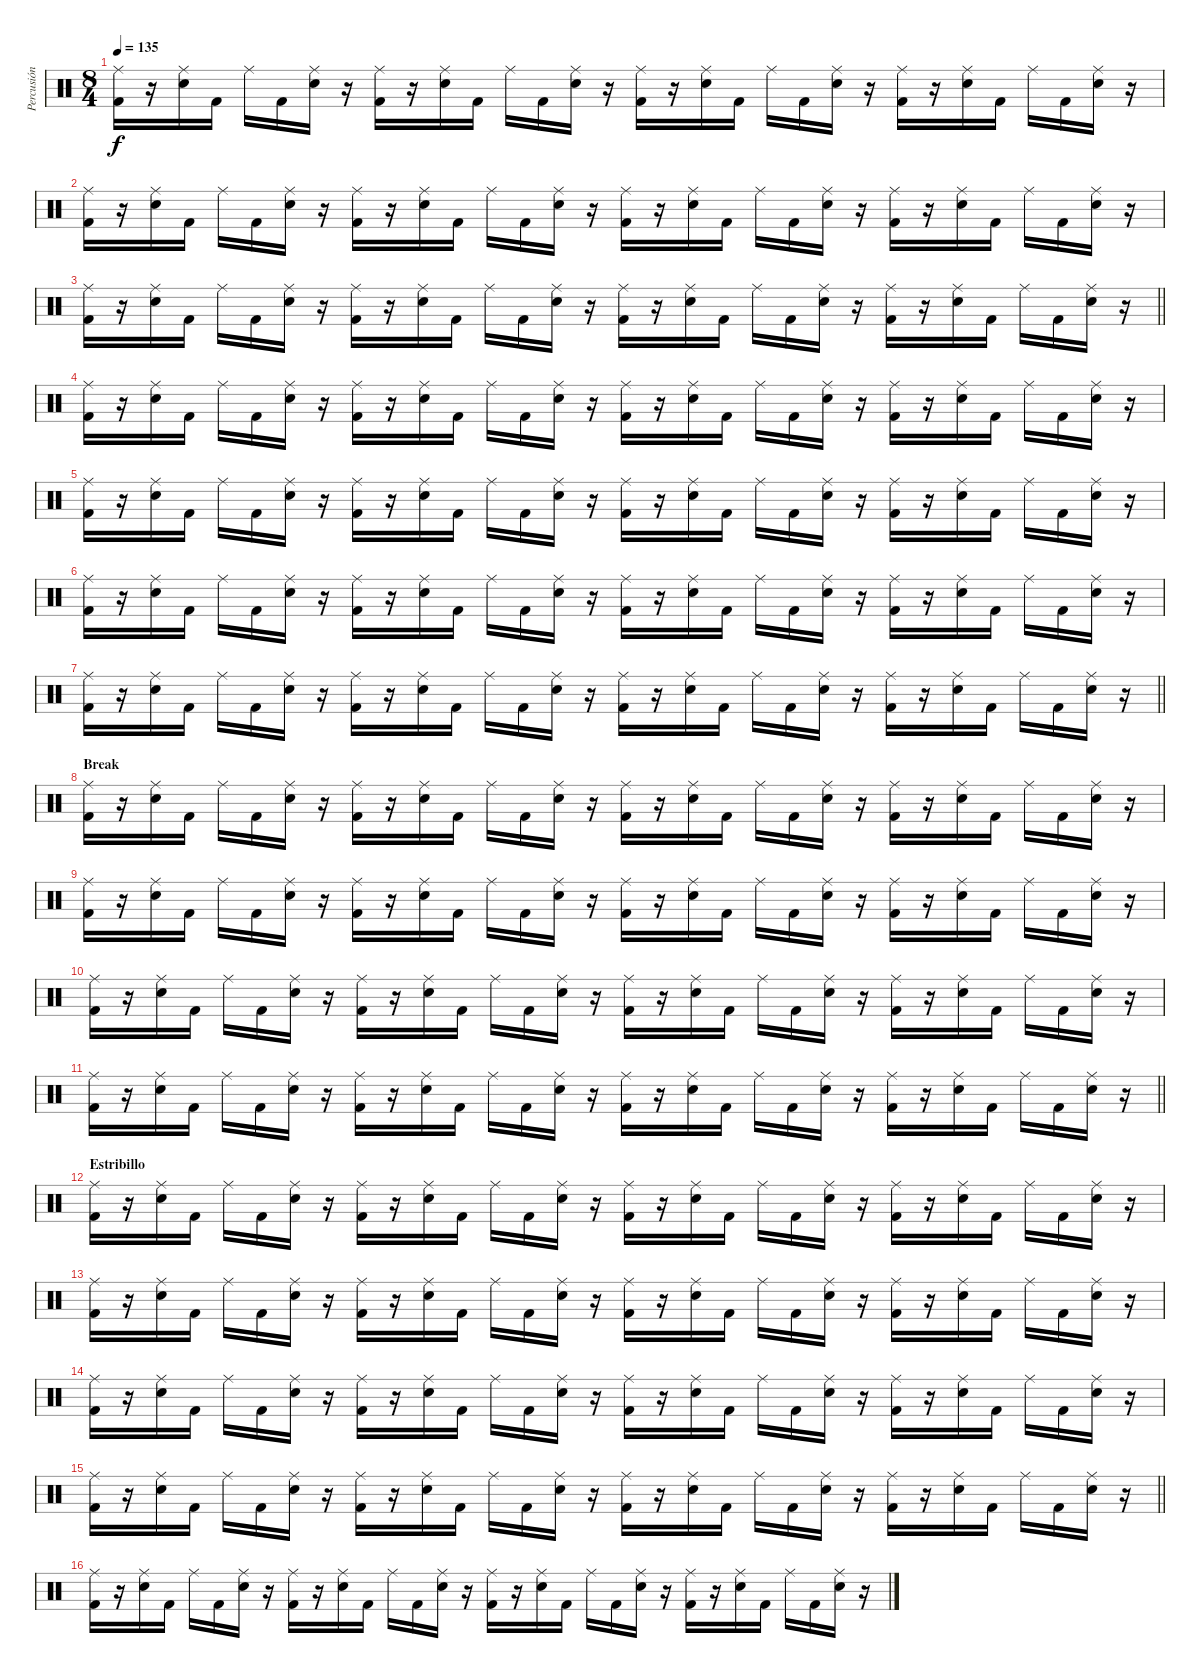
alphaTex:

\track ("Percusión" "Percusión") {instrument percussion}
\staff {score}
\articulation defaults
\ts (8 4)
\tempo 135
\clef neutral
\ks c
("Kick (hit) 2" "Ride (middle)").16{dy f} r.16 ("Snare (hit) 2" "Ride (middle)").16 "Kick (hit) 2".16 "Ride (middle)".16 "Kick (hit) 2".16 ("Snare (hit) 2" "Ride (middle)").16 r.16 ("Kick (hit) 2" "Ride (middle)").16 r.16 ("Snare (hit) 2" "Ride (middle)").16 "Kick (hit) 2".16 "Ride (middle)".16 "Kick (hit) 2".16 ("Snare (hit) 2" "Ride (middle)").16 r.16 ("Kick (hit) 2" "Ride (middle)").16 r.16 ("Snare (hit) 2" "Ride (middle)").16 "Kick (hit) 2".16 "Ride (middle)".16 "Kick (hit) 2".16 ("Snare (hit) 2" "Ride (middle)").16 r.16 ("Kick (hit) 2" "Ride (middle)").16 r.16 ("Snare (hit) 2" "Ride (middle)").16 "Kick (hit) 2".16 "Ride (middle)".16 "Kick (hit) 2".16 ("Snare (hit) 2" "Ride (middle)").16 r.16 |
("Kick (hit) 2" "Ride (middle)").16 r.16 ("Snare (hit) 2" "Ride (middle)").16 "Kick (hit) 2".16 "Ride (middle)".16 "Kick (hit) 2".16 ("Snare (hit) 2" "Ride (middle)").16 r.16 ("Kick (hit) 2" "Ride (middle)").16 r.16 ("Snare (hit) 2" "Ride (middle)").16 "Kick (hit) 2".16 "Ride (middle)".16 "Kick (hit) 2".16 ("Snare (hit) 2" "Ride (middle)").16 r.16 ("Kick (hit) 2" "Ride (middle)").16 r.16 ("Snare (hit) 2" "Ride (middle)").16 "Kick (hit) 2".16 "Ride (middle)".16 "Kick (hit) 2".16 ("Snare (hit) 2" "Ride (middle)").16 r.16 ("Kick (hit) 2" "Ride (middle)").16 r.16 ("Snare (hit) 2" "Ride (middle)").16 "Kick (hit) 2".16 "Ride (middle)".16 "Kick (hit) 2".16 ("Snare (hit) 2" "Ride (middle)").16 r.16 |
\barLineRight lightlight
("Kick (hit) 2" "Ride (middle)").16 r.16 ("Snare (hit) 2" "Ride (middle)").16 "Kick (hit) 2".16 "Ride (middle)".16 "Kick (hit) 2".16 ("Snare (hit) 2" "Ride (middle)").16 r.16 ("Kick (hit) 2" "Ride (middle)").16 r.16 ("Snare (hit) 2" "Ride (middle)").16 "Kick (hit) 2".16 "Ride (middle)".16 "Kick (hit) 2".16 ("Snare (hit) 2" "Ride (middle)").16 r.16 ("Kick (hit) 2" "Ride (middle)").16 r.16 ("Snare (hit) 2" "Ride (middle)").16 "Kick (hit) 2".16 "Ride (middle)".16 "Kick (hit) 2".16 ("Snare (hit) 2" "Ride (middle)").16 r.16 ("Kick (hit) 2" "Ride (middle)").16 r.16 ("Snare (hit) 2" "Ride (middle)").16 "Kick (hit) 2".16 "Ride (middle)".16 "Kick (hit) 2".16 ("Snare (hit) 2" "Ride (middle)").16 r.16 |
("Kick (hit) 2" "Ride (middle)").16 r.16 ("Snare (hit) 2" "Ride (middle)").16 "Kick (hit) 2".16 "Ride (middle)".16 "Kick (hit) 2".16 ("Snare (hit) 2" "Ride (middle)").16 r.16 ("Kick (hit) 2" "Ride (middle)").16 r.16 ("Snare (hit) 2" "Ride (middle)").16 "Kick (hit) 2".16 "Ride (middle)".16 "Kick (hit) 2".16 ("Snare (hit) 2" "Ride (middle)").16 r.16 ("Kick (hit) 2" "Ride (middle)").16 r.16 ("Snare (hit) 2" "Ride (middle)").16 "Kick (hit) 2".16 "Ride (middle)".16 "Kick (hit) 2".16 ("Snare (hit) 2" "Ride (middle)").16 r.16 ("Kick (hit) 2" "Ride (middle)").16 r.16 ("Snare (hit) 2" "Ride (middle)").16 "Kick (hit) 2".16 "Ride (middle)".16 "Kick (hit) 2".16 ("Snare (hit) 2" "Ride (middle)").16 r.16 |
("Kick (hit) 2" "Ride (middle)").16 r.16 ("Snare (hit) 2" "Ride (middle)").16 "Kick (hit) 2".16 "Ride (middle)".16 "Kick (hit) 2".16 ("Snare (hit) 2" "Ride (middle)").16 r.16 ("Kick (hit) 2" "Ride (middle)").16 r.16 ("Snare (hit) 2" "Ride (middle)").16 "Kick (hit) 2".16 "Ride (middle)".16 "Kick (hit) 2".16 ("Snare (hit) 2" "Ride (middle)").16 r.16 ("Kick (hit) 2" "Ride (middle)").16 r.16 ("Snare (hit) 2" "Ride (middle)").16 "Kick (hit) 2".16 "Ride (middle)".16 "Kick (hit) 2".16 ("Snare (hit) 2" "Ride (middle)").16 r.16 ("Kick (hit) 2" "Ride (middle)").16 r.16 ("Snare (hit) 2" "Ride (middle)").16 "Kick (hit) 2".16 "Ride (middle)".16 "Kick (hit) 2".16 ("Snare (hit) 2" "Ride (middle)").16 r.16 |
("Kick (hit) 2" "Ride (middle)").16 r.16 ("Snare (hit) 2" "Ride (middle)").16 "Kick (hit) 2".16 "Ride (middle)".16 "Kick (hit) 2".16 ("Snare (hit) 2" "Ride (middle)").16 r.16 ("Kick (hit) 2" "Ride (middle)").16 r.16 ("Snare (hit) 2" "Ride (middle)").16 "Kick (hit) 2".16 "Ride (middle)".16 "Kick (hit) 2".16 ("Snare (hit) 2" "Ride (middle)").16 r.16 ("Kick (hit) 2" "Ride (middle)").16 r.16 ("Snare (hit) 2" "Ride (middle)").16 "Kick (hit) 2".16 "Ride (middle)".16 "Kick (hit) 2".16 ("Snare (hit) 2" "Ride (middle)").16 r.16 ("Kick (hit) 2" "Ride (middle)").16 r.16 ("Snare (hit) 2" "Ride (middle)").16 "Kick (hit) 2".16 "Ride (middle)".16 "Kick (hit) 2".16 ("Snare (hit) 2" "Ride (middle)").16 r.16 |
\barLineRight lightlight
("Kick (hit) 2" "Ride (middle)").16 r.16 ("Snare (hit) 2" "Ride (middle)").16 "Kick (hit) 2".16 "Ride (middle)".16 "Kick (hit) 2".16 ("Snare (hit) 2" "Ride (middle)").16 r.16 ("Kick (hit) 2" "Ride (middle)").16 r.16 ("Snare (hit) 2" "Ride (middle)").16 "Kick (hit) 2".16 "Ride (middle)".16 "Kick (hit) 2".16 ("Snare (hit) 2" "Ride (middle)").16 r.16 ("Kick (hit) 2" "Ride (middle)").16 r.16 ("Snare (hit) 2" "Ride (middle)").16 "Kick (hit) 2".16 "Ride (middle)".16 "Kick (hit) 2".16 ("Snare (hit) 2" "Ride (middle)").16 r.16 ("Kick (hit) 2" "Ride (middle)").16 r.16 ("Snare (hit) 2" "Ride (middle)").16 "Kick (hit) 2".16 "Ride (middle)".16 "Kick (hit) 2".16 ("Snare (hit) 2" "Ride (middle)").16 r.16 |
\section ("" "Break")
("Kick (hit) 2" "Ride (middle)").16 r.16 ("Snare (hit) 2" "Ride (middle)").16 "Kick (hit) 2".16 "Ride (middle)".16 "Kick (hit) 2".16 ("Snare (hit) 2" "Ride (middle)").16 r.16 ("Kick (hit) 2" "Ride (middle)").16 r.16 ("Snare (hit) 2" "Ride (middle)").16 "Kick (hit) 2".16 "Ride (middle)".16 "Kick (hit) 2".16 ("Snare (hit) 2" "Ride (middle)").16 r.16 ("Kick (hit) 2" "Ride (middle)").16 r.16 ("Snare (hit) 2" "Ride (middle)").16 "Kick (hit) 2".16 "Ride (middle)".16 "Kick (hit) 2".16 ("Snare (hit) 2" "Ride (middle)").16 r.16 ("Kick (hit) 2" "Ride (middle)").16 r.16 ("Snare (hit) 2" "Ride (middle)").16 "Kick (hit) 2".16 "Ride (middle)".16 "Kick (hit) 2".16 ("Snare (hit) 2" "Ride (middle)").16 r.16 |
("Kick (hit) 2" "Ride (middle)").16 r.16 ("Snare (hit) 2" "Ride (middle)").16 "Kick (hit) 2".16 "Ride (middle)".16 "Kick (hit) 2".16 ("Snare (hit) 2" "Ride (middle)").16 r.16 ("Kick (hit) 2" "Ride (middle)").16 r.16 ("Snare (hit) 2" "Ride (middle)").16 "Kick (hit) 2".16 "Ride (middle)".16 "Kick (hit) 2".16 ("Snare (hit) 2" "Ride (middle)").16 r.16 ("Kick (hit) 2" "Ride (middle)").16 r.16 ("Snare (hit) 2" "Ride (middle)").16 "Kick (hit) 2".16 "Ride (middle)".16 "Kick (hit) 2".16 ("Snare (hit) 2" "Ride (middle)").16 r.16 ("Kick (hit) 2" "Ride (middle)").16 r.16 ("Snare (hit) 2" "Ride (middle)").16 "Kick (hit) 2".16 "Ride (middle)".16 "Kick (hit) 2".16 ("Snare (hit) 2" "Ride (middle)").16 r.16 |
("Kick (hit) 2" "Ride (middle)").16 r.16 ("Snare (hit) 2" "Ride (middle)").16 "Kick (hit) 2".16 "Ride (middle)".16 "Kick (hit) 2".16 ("Snare (hit) 2" "Ride (middle)").16 r.16 ("Kick (hit) 2" "Ride (middle)").16 r.16 ("Snare (hit) 2" "Ride (middle)").16 "Kick (hit) 2".16 "Ride (middle)".16 "Kick (hit) 2".16 ("Snare (hit) 2" "Ride (middle)").16 r.16 ("Kick (hit) 2" "Ride (middle)").16 r.16 ("Snare (hit) 2" "Ride (middle)").16 "Kick (hit) 2".16 "Ride (middle)".16 "Kick (hit) 2".16 ("Snare (hit) 2" "Ride (middle)").16 r.16 ("Kick (hit) 2" "Ride (middle)").16 r.16 ("Snare (hit) 2" "Ride (middle)").16 "Kick (hit) 2".16 "Ride (middle)".16 "Kick (hit) 2".16 ("Snare (hit) 2" "Ride (middle)").16 r.16 |
\barLineRight lightlight
("Kick (hit) 2" "Ride (middle)").16 r.16 ("Snare (hit) 2" "Ride (middle)").16 "Kick (hit) 2".16 "Ride (middle)".16 "Kick (hit) 2".16 ("Snare (hit) 2" "Ride (middle)").16 r.16 ("Kick (hit) 2" "Ride (middle)").16 r.16 ("Snare (hit) 2" "Ride (middle)").16 "Kick (hit) 2".16 "Ride (middle)".16 "Kick (hit) 2".16 ("Snare (hit) 2" "Ride (middle)").16 r.16 ("Kick (hit) 2" "Ride (middle)").16 r.16 ("Snare (hit) 2" "Ride (middle)").16 "Kick (hit) 2".16 "Ride (middle)".16 "Kick (hit) 2".16 ("Snare (hit) 2" "Ride (middle)").16 r.16 ("Kick (hit) 2" "Ride (middle)").16 r.16 ("Snare (hit) 2" "Ride (middle)").16 "Kick (hit) 2".16 "Ride (middle)".16 "Kick (hit) 2".16 ("Snare (hit) 2" "Ride (middle)").16 r.16 |
\section ("" "Estribillo")
("Kick (hit) 2" "Ride (middle)").16 r.16 ("Snare (hit) 2" "Ride (middle)").16 "Kick (hit) 2".16 "Ride (middle)".16 "Kick (hit) 2".16 ("Snare (hit) 2" "Ride (middle)").16 r.16 ("Kick (hit) 2" "Ride (middle)").16 r.16 ("Snare (hit) 2" "Ride (middle)").16 "Kick (hit) 2".16 "Ride (middle)".16 "Kick (hit) 2".16 ("Snare (hit) 2" "Ride (middle)").16 r.16 ("Kick (hit) 2" "Ride (middle)").16 r.16 ("Snare (hit) 2" "Ride (middle)").16 "Kick (hit) 2".16 "Ride (middle)".16 "Kick (hit) 2".16 ("Snare (hit) 2" "Ride (middle)").16 r.16 ("Kick (hit) 2" "Ride (middle)").16 r.16 ("Snare (hit) 2" "Ride (middle)").16 "Kick (hit) 2".16 "Ride (middle)".16 "Kick (hit) 2".16 ("Snare (hit) 2" "Ride (middle)").16 r.16 |
("Kick (hit) 2" "Ride (middle)").16 r.16 ("Snare (hit) 2" "Ride (middle)").16 "Kick (hit) 2".16 "Ride (middle)".16 "Kick (hit) 2".16 ("Snare (hit) 2" "Ride (middle)").16 r.16 ("Kick (hit) 2" "Ride (middle)").16 r.16 ("Snare (hit) 2" "Ride (middle)").16 "Kick (hit) 2".16 "Ride (middle)".16 "Kick (hit) 2".16 ("Snare (hit) 2" "Ride (middle)").16 r.16 ("Kick (hit) 2" "Ride (middle)").16 r.16 ("Snare (hit) 2" "Ride (middle)").16 "Kick (hit) 2".16 "Ride (middle)".16 "Kick (hit) 2".16 ("Snare (hit) 2" "Ride (middle)").16 r.16 ("Kick (hit) 2" "Ride (middle)").16 r.16 ("Snare (hit) 2" "Ride (middle)").16 "Kick (hit) 2".16 "Ride (middle)".16 "Kick (hit) 2".16 ("Snare (hit) 2" "Ride (middle)").16 r.16 |
("Kick (hit) 2" "Ride (middle)").16 r.16 ("Snare (hit) 2" "Ride (middle)").16 "Kick (hit) 2".16 "Ride (middle)".16 "Kick (hit) 2".16 ("Snare (hit) 2" "Ride (middle)").16 r.16 ("Kick (hit) 2" "Ride (middle)").16 r.16 ("Snare (hit) 2" "Ride (middle)").16 "Kick (hit) 2".16 "Ride (middle)".16 "Kick (hit) 2".16 ("Snare (hit) 2" "Ride (middle)").16 r.16 ("Kick (hit) 2" "Ride (middle)").16 r.16 ("Snare (hit) 2" "Ride (middle)").16 "Kick (hit) 2".16 "Ride (middle)".16 "Kick (hit) 2".16 ("Snare (hit) 2" "Ride (middle)").16 r.16 ("Kick (hit) 2" "Ride (middle)").16 r.16 ("Snare (hit) 2" "Ride (middle)").16 "Kick (hit) 2".16 "Ride (middle)".16 "Kick (hit) 2".16 ("Snare (hit) 2" "Ride (middle)").16 r.16 |
\barLineRight lightlight
("Kick (hit) 2" "Ride (middle)").16 r.16 ("Snare (hit) 2" "Ride (middle)").16 "Kick (hit) 2".16 "Ride (middle)".16 "Kick (hit) 2".16 ("Snare (hit) 2" "Ride (middle)").16 r.16 ("Kick (hit) 2" "Ride (middle)").16 r.16 ("Snare (hit) 2" "Ride (middle)").16 "Kick (hit) 2".16 "Ride (middle)".16 "Kick (hit) 2".16 ("Snare (hit) 2" "Ride (middle)").16 r.16 ("Kick (hit) 2" "Ride (middle)").16 r.16 ("Snare (hit) 2" "Ride (middle)").16 "Kick (hit) 2".16 "Ride (middle)".16 "Kick (hit) 2".16 ("Snare (hit) 2" "Ride (middle)").16 r.16 ("Kick (hit) 2" "Ride (middle)").16 r.16 ("Snare (hit) 2" "Ride (middle)").16 "Kick (hit) 2".16 "Ride (middle)".16 "Kick (hit) 2".16 ("Snare (hit) 2" "Ride (middle)").16 r.16 |
("Kick (hit) 2" "Ride (middle)").16 r.16 ("Snare (hit) 2" "Ride (middle)").16 "Kick (hit) 2".16 "Ride (middle)".16 "Kick (hit) 2".16 ("Snare (hit) 2" "Ride (middle)").16 r.16 ("Kick (hit) 2" "Ride (middle)").16 r.16 ("Snare (hit) 2" "Ride (middle)").16 "Kick (hit) 2".16 "Ride (middle)".16 "Kick (hit) 2".16 ("Snare (hit) 2" "Ride (middle)").16 r.16 ("Kick (hit) 2" "Ride (middle)").16 r.16 ("Snare (hit) 2" "Ride (middle)").16 "Kick (hit) 2".16 "Ride (middle)".16 "Kick (hit) 2".16 ("Snare (hit) 2" "Ride (middle)").16 r.16 ("Kick (hit) 2" "Ride (middle)").16 r.16 ("Snare (hit) 2" "Ride (middle)").16 "Kick (hit) 2".16 "Ride (middle)".16 "Kick (hit) 2".16 ("Snare (hit) 2" "Ride (middle)").16 r.16
